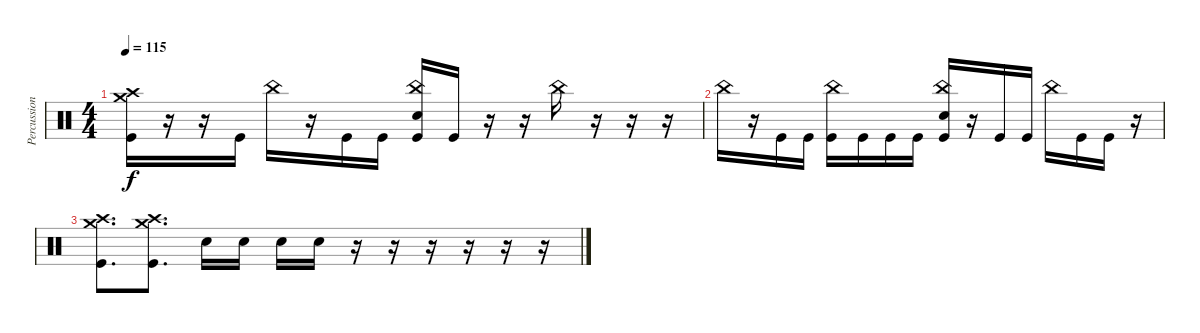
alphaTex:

\track ("Percussion" "Percussion") {instrument percussion}
\staff {score}
\articulation defaults
\ts (4 4)
\tempo 115
\clef neutral
\ks c
("Crash medium (hit)" "Crash high (hit)" "Kick (hit)").16{dy f} r.16 r.16 "Kick (hit)".16 "China (hit)".16 r.16 "Kick (hit)".16 "Kick (hit)".16 ("China (hit)" "Snare (hit) 2" "Kick (hit)").16 "Kick (hit)".16 r.16 r.16 "China (hit)".16 r.16 r.16 r.16 |
"China (hit)".16 r.16 "Kick (hit)".16 "Kick (hit)".16 ("China (hit)" "Kick (hit)").16 "Kick (hit)".16 "Kick (hit)".16 "Kick (hit)".16 ("China (hit)" "Snare (hit) 2" "Kick (hit)").16 r.16 "Kick (hit)".16 "Kick (hit)".16 "China (hit)".16 "Kick (hit)".16 "Kick (hit)".16 r.16 |
("Crash medium (hit)" "Crash high (hit)" "Kick (hit)").8{d} ("Crash medium (hit)" "Crash high (hit)" "Kick (hit)").8{d} "Snare (hit) 2".16 "Snare (hit) 2".16 "Snare (hit) 2".16 "Snare (hit) 2".16 r.16 r.16 r.16 r.16 r.16 r.16
